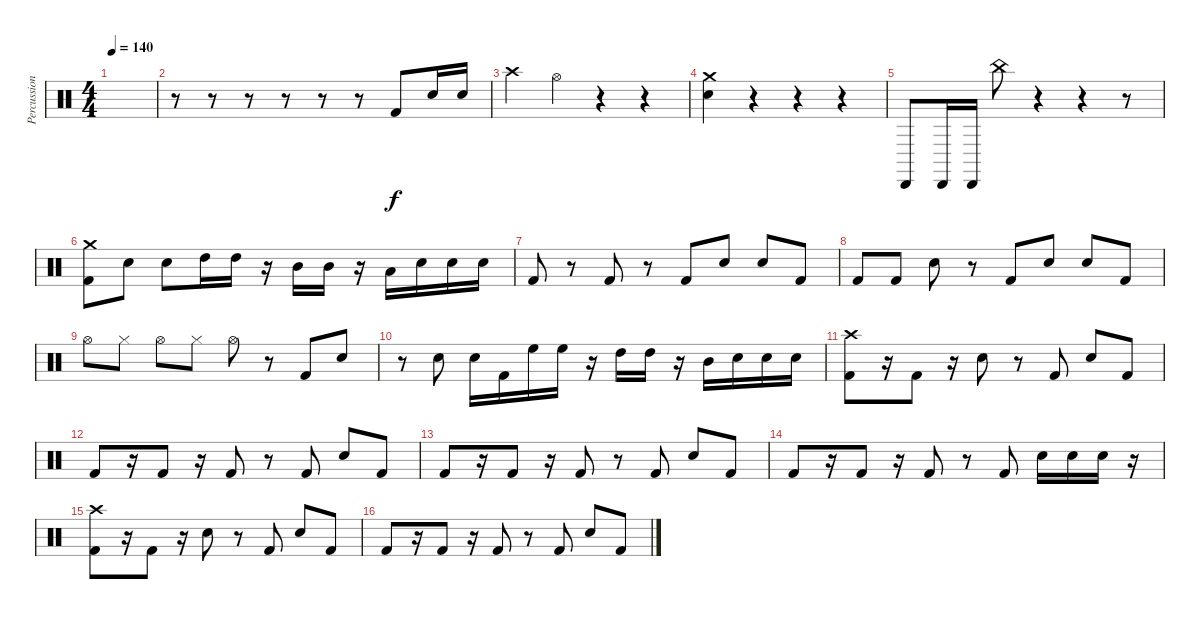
\track ("Percussion" "Percussion") {instrument percussion}
\staff {score}
\articulation defaults
\ts (4 4)
\tempo 140
\clef neutral
\ks c
|
r.8 r.8 r.8 r.8 r.8 r.8 "Kick (hit) 2".8 "Electric Snare (hit)".16 "Electric Snare (hit)".16 |
"Crash high (hit)".4 "Hi-Hat (open)".4 r.4 r.4 |
("Crash medium (hit)" "Electric Snare (hit)").4 r.4 r.4 r.4 |
"Cabasa (hit)".8 "Cabasa (hit)".16 "Cabasa (hit)".16 "China (hit)".8 r.4 r.4 r.8 |
("Crash medium (hit)" "Kick (hit) 2").8 "Electric Snare (hit)".8 "Electric Snare (hit)".8 "High Tom (hit)".16 "High Tom (hit)".16 r.16 "Mid Tom (hit)".16 "Mid Tom (hit)".16 r.16 "Low Tom (hit)".16 "Electric Snare (hit)".16 "Electric Snare (hit)".16 "Electric Snare (hit)".16 |
"Kick (hit) 2".8 r.8 "Kick (hit) 2".8 r.8 "Kick (hit) 2".8 "Electric Snare (hit)".8 "Electric Snare (hit)".8 "Kick (hit) 2".8 |
"Kick (hit) 2".8 "Kick (hit) 2".8 "Electric Snare (hit)".8 r.8 "Kick (hit) 2".8 "Electric Snare (hit)".8 "Electric Snare (hit)".8 "Kick (hit) 2".8 |
"Hi-Hat (open)".8 "Hi-Hat (closed)".8 "Hi-Hat (open)".8 "Hi-Hat (closed)".8 "Hi-Hat (open)".8 r.8 "Kick (hit) 2".8 "Electric Snare (hit)".8 |
r.8 "Electric Snare (hit)".8 "Electric Snare (hit)".16 "Kick (hit) 2".16 "High Floor Tom (hit)".16 "High Floor Tom (hit)".16 r.16 "High Tom (hit)".16 "High Tom (hit)".16 r.16 "Mid Tom (hit)".16 "Electric Snare (hit)".16 "Electric Snare (hit)".16 "Electric Snare (hit)".16 |
("Crash high (hit)" "Kick (hit) 2").8 r.16 "Kick (hit) 2".8 r.16 "Electric Snare (hit)".8 r.8 "Kick (hit) 2".8 "Electric Snare (hit)".8 "Kick (hit) 2".8 |
"Kick (hit) 2".8 r.16 "Kick (hit) 2".8 r.16 "Kick (hit) 2".8 r.8 "Kick (hit) 2".8 "Electric Snare (hit)".8 "Kick (hit) 2".8 |
"Kick (hit) 2".8 r.16 "Kick (hit) 2".8 r.16 "Kick (hit) 2".8 r.8 "Kick (hit) 2".8 "Electric Snare (hit)".8 "Kick (hit) 2".8 |
"Kick (hit) 2".8 r.16 "Kick (hit) 2".8 r.16 "Kick (hit) 2".8 r.8 "Kick (hit) 2".8 "Electric Snare (hit)".16 "Electric Snare (hit)".16 "Electric Snare (hit)".16 r.16 |
("Crash high (hit)" "Kick (hit) 2").8 r.16 "Kick (hit) 2".8 r.16 "Electric Snare (hit)".8 r.8 "Kick (hit) 2".8 "Electric Snare (hit)".8 "Kick (hit) 2".8 |
"Kick (hit) 2".8 r.16 "Kick (hit) 2".8 r.16 "Kick (hit) 2".8 r.8 "Kick (hit) 2".8 "Electric Snare (hit)".8 "Kick (hit) 2".8
